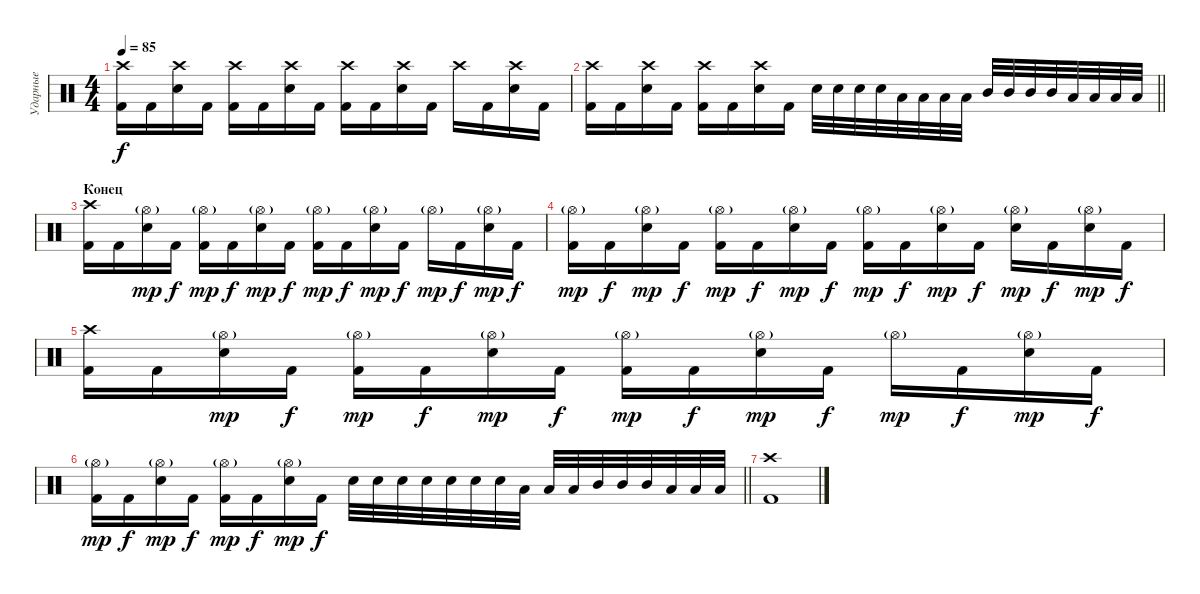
\track ("Ударные" "Ударные") {instrument percussion}
\staff {score}
\articulation defaults
\ts (4 4)
\tempo 85
\clef neutral
\ks c
("Crash high (hit)" "Kick (hit) 2").16{dy f} "Kick (hit) 2".16 ("Crash high (hit)" "Electric Snare (hit)").16 "Kick (hit) 2".16 ("Crash high (hit)" "Kick (hit) 2").16 "Kick (hit) 2".16 ("Crash high (hit)" "Electric Snare (hit)").16 "Kick (hit) 2".16 ("Crash high (hit)" "Kick (hit) 2").16 "Kick (hit) 2".16 ("Crash high (hit)" "Electric Snare (hit)").16 "Kick (hit) 2".16 "Crash high (hit)".16 "Kick (hit) 2".16 ("Crash high (hit)" "Electric Snare (hit)").16 "Kick (hit) 2".16 |
\barLineRight lightlight
("Crash high (hit)" "Kick (hit) 2").16 "Kick (hit) 2".16 ("Crash high (hit)" "Electric Snare (hit)").16 "Kick (hit) 2".16 ("Crash high (hit)" "Kick (hit) 2").16 "Kick (hit) 2".16 ("Crash high (hit)" "Electric Snare (hit)").16 "Kick (hit) 2".16 "Electric Snare (hit)".32 "Electric Snare (hit)".32 "Electric Snare (hit)".32 "Electric Snare (hit)".32 "Low Tom (hit)".32 "Low Tom (hit)".32 "Low Tom (hit)".32 "Low Tom (hit)".32 "Mid Tom (hit)".32 "Mid Tom (hit)".32 "Mid Tom (hit)".32 "Mid Tom (hit)".32 "Low Floor Tom (hit)".32 "Low Floor Tom (hit)".32 "Low Floor Tom (hit)".32 "Low Floor Tom (hit)".32 |
\section ("" "Конец")
("Crash high (hit)" "Kick (hit) 2").16 "Kick (hit) 2".16 ("Hi-Hat (open)"{g} "Electric Snare (hit)").16{dy mp} "Kick (hit) 2".16{dy f} ("Hi-Hat (open)"{g} "Kick (hit) 2").16{dy mp} "Kick (hit) 2".16{dy f} ("Hi-Hat (open)"{g} "Electric Snare (hit)").16{dy mp} "Kick (hit) 2".16{dy f} ("Hi-Hat (open)"{g} "Kick (hit) 2").16{dy mp} "Kick (hit) 2".16{dy f} ("Hi-Hat (open)"{g} "Electric Snare (hit)").16{dy mp} "Kick (hit) 2".16{dy f} "Hi-Hat (open)"{g}.16{dy mp} "Kick (hit) 2".16{dy f} ("Hi-Hat (open)"{g} "Electric Snare (hit)").16{dy mp} "Kick (hit) 2".16{dy f} |
("Hi-Hat (open)"{g} "Kick (hit) 2").16{dy mp} "Kick (hit) 2".16{dy f} ("Hi-Hat (open)"{g} "Electric Snare (hit)").16{dy mp} "Kick (hit) 2".16{dy f} ("Hi-Hat (open)"{g} "Kick (hit) 2").16{dy mp} "Kick (hit) 2".16{dy f} ("Hi-Hat (open)"{g} "Electric Snare (hit)").16{dy mp} "Kick (hit) 2".16{dy f} ("Hi-Hat (open)"{g} "Kick (hit) 2").16{dy mp} "Kick (hit) 2".16{dy f} ("Hi-Hat (open)"{g} "Electric Snare (hit)").16{dy mp} "Kick (hit) 2".16{dy f} ("Hi-Hat (open)"{g} "Electric Snare (hit)").16{dy mp} "Kick (hit) 2".16{dy f} ("Hi-Hat (open)"{g} "Electric Snare (hit)").16{dy mp} "Kick (hit) 2".16{dy f} |
("Crash high (hit)" "Kick (hit) 2").16 "Kick (hit) 2".16 ("Hi-Hat (open)"{g} "Electric Snare (hit)").16{dy mp} "Kick (hit) 2".16{dy f} ("Hi-Hat (open)"{g} "Kick (hit) 2").16{dy mp} "Kick (hit) 2".16{dy f} ("Hi-Hat (open)"{g} "Electric Snare (hit)").16{dy mp} "Kick (hit) 2".16{dy f} ("Hi-Hat (open)"{g} "Kick (hit) 2").16{dy mp} "Kick (hit) 2".16{dy f} ("Hi-Hat (open)"{g} "Electric Snare (hit)").16{dy mp} "Kick (hit) 2".16{dy f} "Hi-Hat (open)"{g}.16{dy mp} "Kick (hit) 2".16{dy f} ("Hi-Hat (open)"{g} "Electric Snare (hit)").16{dy mp} "Kick (hit) 2".16{dy f} |
\barLineRight lightlight
("Hi-Hat (open)"{g} "Kick (hit) 2").16{dy mp} "Kick (hit) 2".16{dy f} ("Hi-Hat (open)"{g} "Electric Snare (hit)").16{dy mp} "Kick (hit) 2".16{dy f} ("Hi-Hat (open)"{g} "Kick (hit) 2").16{dy mp} "Kick (hit) 2".16{dy f} ("Hi-Hat (open)"{g} "Electric Snare (hit)").16{dy mp} "Kick (hit) 2".16{dy f} "Electric Snare (hit)".32 "Electric Snare (hit)".32 "Electric Snare (hit)".32 "Electric Snare (hit)".32 "Electric Snare (hit)".32 "Electric Snare (hit)".32 "Electric Snare (hit)".32 "Low Tom (hit)".32 "Low Tom (hit)".32 "Low Tom (hit)".32 "Mid Tom (hit)".32 "Mid Tom (hit)".32 "Mid Tom (hit)".32 "Low Floor Tom (hit)".32 "Low Floor Tom (hit)".32 "Low Floor Tom (hit)".32 |
("Crash high (hit)" "Kick (hit) 2").1
